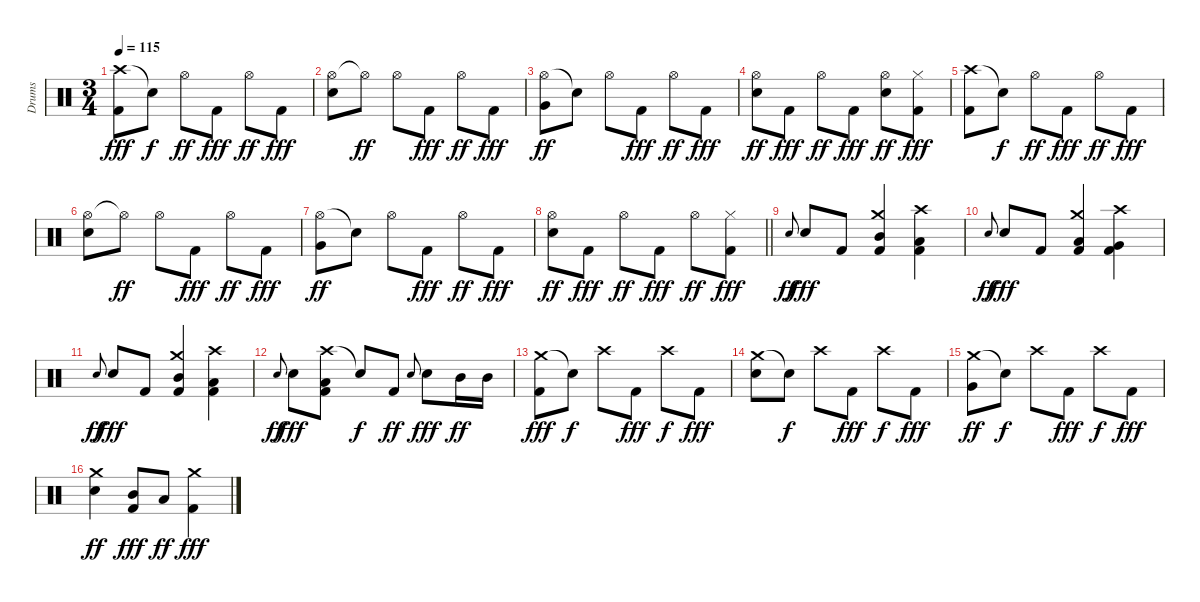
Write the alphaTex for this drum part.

\track ("Drums" "Drums") {instrument percussion}
\staff {score}
\articulation defaults
\ts (3 4)
\section ("" "")
\tempo 115
\clef neutral
\ks c
("Crash high (hit)" "Kick (hit) 2").8{dy fff} "Snare (hit)"{t}.8{dy f} "Hi-Hat (open)".8{dy ff} "Kick (hit) 2".8{dy fff} "Hi-Hat (open)".8{dy ff} "Kick (hit) 2".8{dy fff} |
("Hi-Hat (open)" "Snare (hit) 2").8 "Hi-Hat (open)"{t}.8{dy ff} "Hi-Hat (open)".8 "Kick (hit) 2".8{dy fff} "Hi-Hat (open)".8{dy ff} "Kick (hit) 2".8{dy fff} |
("Hi-Hat (open)" "Very Low Tom (hit)").8{dy ff} "Snare (hit)"{t}.8 "Hi-Hat (open)".8 "Kick (hit) 2".8{dy fff} "Hi-Hat (open)".8{dy ff} "Kick (hit) 2".8{dy fff} |
("Hi-Hat (open)" "Snare (hit) 2").8{dy ff} "Kick (hit) 2".8{dy fff} "Hi-Hat (open)".8{dy ff} "Kick (hit) 2".8{dy fff} ("Hi-Hat (open)" "Snare (hit) 2").8{dy ff} ("Hi-Hat (closed)" "Kick (hit) 2").8{dy fff} |
("Crash high (hit)" "Kick (hit) 2").8 "Snare (hit)"{t}.8{dy f} "Hi-Hat (open)".8{dy ff} "Kick (hit) 2".8{dy fff} "Hi-Hat (open)".8{dy ff} "Kick (hit) 2".8{dy fff} |
("Hi-Hat (open)" "Snare (hit) 2").8 "Hi-Hat (open)"{t}.8{dy ff} "Hi-Hat (open)".8 "Kick (hit) 2".8{dy fff} "Hi-Hat (open)".8{dy ff} "Kick (hit) 2".8{dy fff} |
("Hi-Hat (open)" "Very Low Tom (hit)").8{dy ff} "Snare (hit)"{t}.8 "Hi-Hat (open)".8 "Kick (hit) 2".8{dy fff} "Hi-Hat (open)".8{dy ff} "Kick (hit) 2".8{dy fff} |
\barLineRight lightlight
("Hi-Hat (open)" "Snare (hit) 2").8{dy ff} "Kick (hit) 2".8{dy fff} "Hi-Hat (open)".8{dy ff} "Kick (hit) 2".8{dy fff} "Hi-Hat (open)".8{dy ff} ("Hi-Hat (closed)" "Kick (hit) 2").8{dy fff} |
"Snare (hit) 2".8{gr onbeat dy ff} "Snare (hit) 2".8{dy fff} "Kick (hit) 2".8 ("Crash medium (hit)" "Mid Tom (hit)" "Kick (hit) 2").4 ("Crash high (hit)" "Low Tom (hit)" "Kick (hit) 2").4 |
"Snare (hit) 2".8{gr onbeat dy ff} "Snare (hit) 2".8{dy fff} "Kick (hit) 2".8 ("Crash medium (hit)" "Low Tom (hit)" "Kick (hit) 2").4 ("Crash high (hit)" "Very Low Tom (hit)" "Kick (hit) 2").4 |
"Snare (hit) 2".8{gr onbeat dy ff} "Snare (hit) 2".8{dy fff} "Kick (hit) 2".8 ("Crash medium (hit)" "Mid Tom (hit)" "Kick (hit) 2").4 ("Crash high (hit)" "Low Tom (hit)" "Kick (hit) 2").4 |
"Snare (hit) 2".8{gr onbeat dy ff} "Snare (hit) 2".8{dy fff} ("Crash high (hit)" "Low Tom (hit)" "Kick (hit) 2").8 "Snare (hit)"{t}.8{dy f} "Kick (hit) 2".8{dy ff} "Snare (hit) 2".8{gr onbeat} "Snare (hit) 2".8{dy fff} "Mid Tom (hit)".16{dy ff} "Mid Tom (hit)".16 |
("Crash medium (hit)" "Kick (hit) 2").8{dy fff} "Snare (hit)"{t}.8{dy f} "Crash high (hit)".8 "Kick (hit) 2".8{dy fff} "Crash high (hit)".8{dy f} "Kick (hit) 2".8{dy fff} |
("Crash medium (hit)" "Snare (hit) 2").8 "Snare (hit)"{t}.8{dy f} "Crash high (hit)".8 "Kick (hit) 2".8{dy fff} "Crash high (hit)".8{dy f} "Kick (hit) 2".8{dy fff} |
("Crash medium (hit)" "Very Low Tom (hit)").8{dy ff} "Snare (hit)"{t}.8{dy f} "Crash high (hit)".8 "Kick (hit) 2".8{dy fff} "Crash high (hit)".8{dy f} "Kick (hit) 2".8{dy fff} |
("Crash medium (hit)" "Snare (hit) 2").4{dy ff} ("Mid Tom (hit)" "Kick (hit) 2").8{dy fff} "Low Tom (hit)".8{dy ff} ("Crash medium (hit)" "Kick (hit) 2").4{dy fff}
